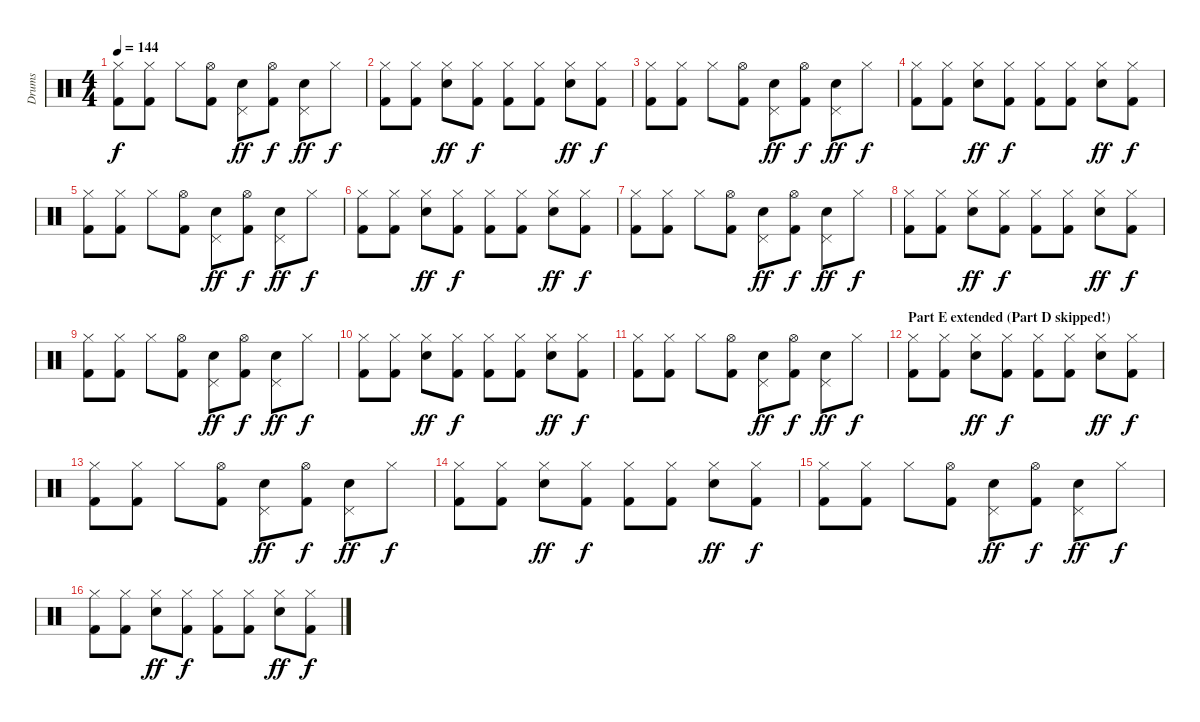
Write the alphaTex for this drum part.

\track ("Drums" "Drums") {instrument percussion}
\staff {score}
\articulation defaults
\ts (4 4)
\tempo 144
\clef neutral
\ks c
("Hi-Hat (closed)" "Kick (hit) 2").8{dy f} ("Hi-Hat (closed)" "Kick (hit) 2").8 "Hi-Hat (closed)".8 ("Hi-Hat (open)" "Kick (hit) 2").8 ("Pedal Hi-Hat (hit)" "Electric Snare (hit)").8{dy ff} ("Hi-Hat (open)" "Kick (hit) 2").8{dy f} ("Pedal Hi-Hat (hit)" "Electric Snare (hit)").8{dy ff} "Hi-Hat (closed)".8{dy f} |
("Hi-Hat (closed)" "Kick (hit) 2").8 ("Hi-Hat (closed)" "Kick (hit) 2").8 ("Hi-Hat (closed)" "Electric Snare (hit)").8{dy ff} ("Hi-Hat (closed)" "Kick (hit) 2").8{dy f} ("Hi-Hat (closed)" "Kick (hit) 2").8 ("Hi-Hat (closed)" "Kick (hit) 2").8 ("Hi-Hat (closed)" "Electric Snare (hit)").8{dy ff} ("Hi-Hat (closed)" "Kick (hit) 2").8{dy f} |
("Hi-Hat (closed)" "Kick (hit) 2").8 ("Hi-Hat (closed)" "Kick (hit) 2").8 "Hi-Hat (closed)".8 ("Hi-Hat (open)" "Kick (hit) 2").8 ("Pedal Hi-Hat (hit)" "Electric Snare (hit)").8{dy ff} ("Hi-Hat (open)" "Kick (hit) 2").8{dy f} ("Pedal Hi-Hat (hit)" "Electric Snare (hit)").8{dy ff} "Hi-Hat (closed)".8{dy f} |
("Hi-Hat (closed)" "Kick (hit) 2").8 ("Hi-Hat (closed)" "Kick (hit) 2").8 ("Hi-Hat (closed)" "Electric Snare (hit)").8{dy ff} ("Hi-Hat (closed)" "Kick (hit) 2").8{dy f} ("Hi-Hat (closed)" "Kick (hit) 2").8 ("Hi-Hat (closed)" "Kick (hit) 2").8 ("Hi-Hat (closed)" "Electric Snare (hit)").8{dy ff} ("Hi-Hat (closed)" "Kick (hit) 2").8{dy f} |
("Hi-Hat (closed)" "Kick (hit) 2").8 ("Hi-Hat (closed)" "Kick (hit) 2").8 "Hi-Hat (closed)".8 ("Hi-Hat (open)" "Kick (hit) 2").8 ("Pedal Hi-Hat (hit)" "Electric Snare (hit)").8{dy ff} ("Hi-Hat (open)" "Kick (hit) 2").8{dy f} ("Pedal Hi-Hat (hit)" "Electric Snare (hit)").8{dy ff} "Hi-Hat (closed)".8{dy f} |
("Hi-Hat (closed)" "Kick (hit) 2").8 ("Hi-Hat (closed)" "Kick (hit) 2").8 ("Hi-Hat (closed)" "Electric Snare (hit)").8{dy ff} ("Hi-Hat (closed)" "Kick (hit) 2").8{dy f} ("Hi-Hat (closed)" "Kick (hit) 2").8 ("Hi-Hat (closed)" "Kick (hit) 2").8 ("Hi-Hat (closed)" "Electric Snare (hit)").8{dy ff} ("Hi-Hat (closed)" "Kick (hit) 2").8{dy f} |
("Hi-Hat (closed)" "Kick (hit) 2").8 ("Hi-Hat (closed)" "Kick (hit) 2").8 "Hi-Hat (closed)".8 ("Hi-Hat (open)" "Kick (hit) 2").8 ("Pedal Hi-Hat (hit)" "Electric Snare (hit)").8{dy ff} ("Hi-Hat (open)" "Kick (hit) 2").8{dy f} ("Pedal Hi-Hat (hit)" "Electric Snare (hit)").8{dy ff} "Hi-Hat (closed)".8{dy f} |
("Hi-Hat (closed)" "Kick (hit) 2").8 ("Hi-Hat (closed)" "Kick (hit) 2").8 ("Hi-Hat (closed)" "Electric Snare (hit)").8{dy ff} ("Hi-Hat (closed)" "Kick (hit) 2").8{dy f} ("Hi-Hat (closed)" "Kick (hit) 2").8 ("Hi-Hat (closed)" "Kick (hit) 2").8 ("Hi-Hat (closed)" "Electric Snare (hit)").8{dy ff} ("Hi-Hat (closed)" "Kick (hit) 2").8{dy f} |
("Hi-Hat (closed)" "Kick (hit) 2").8 ("Hi-Hat (closed)" "Kick (hit) 2").8 "Hi-Hat (closed)".8 ("Hi-Hat (open)" "Kick (hit) 2").8 ("Pedal Hi-Hat (hit)" "Electric Snare (hit)").8{dy ff} ("Hi-Hat (open)" "Kick (hit) 2").8{dy f} ("Pedal Hi-Hat (hit)" "Electric Snare (hit)").8{dy ff} "Hi-Hat (closed)".8{dy f} |
("Hi-Hat (closed)" "Kick (hit) 2").8 ("Hi-Hat (closed)" "Kick (hit) 2").8 ("Hi-Hat (closed)" "Electric Snare (hit)").8{dy ff} ("Hi-Hat (closed)" "Kick (hit) 2").8{dy f} ("Hi-Hat (closed)" "Kick (hit) 2").8 ("Hi-Hat (closed)" "Kick (hit) 2").8 ("Hi-Hat (closed)" "Electric Snare (hit)").8{dy ff} ("Hi-Hat (closed)" "Kick (hit) 2").8{dy f} |
("Hi-Hat (closed)" "Kick (hit) 2").8 ("Hi-Hat (closed)" "Kick (hit) 2").8 "Hi-Hat (closed)".8 ("Hi-Hat (open)" "Kick (hit) 2").8 ("Pedal Hi-Hat (hit)" "Electric Snare (hit)").8{dy ff} ("Hi-Hat (open)" "Kick (hit) 2").8{dy f} ("Pedal Hi-Hat (hit)" "Electric Snare (hit)").8{dy ff} "Hi-Hat (closed)".8{dy f} |
\section ("" "Part E extended (Part D skipped!)")
("Hi-Hat (closed)" "Kick (hit) 2").8 ("Hi-Hat (closed)" "Kick (hit) 2").8 ("Hi-Hat (closed)" "Electric Snare (hit)").8{dy ff} ("Hi-Hat (closed)" "Kick (hit) 2").8{dy f} ("Hi-Hat (closed)" "Kick (hit) 2").8 ("Hi-Hat (closed)" "Kick (hit) 2").8 ("Hi-Hat (closed)" "Electric Snare (hit)").8{dy ff} ("Hi-Hat (closed)" "Kick (hit) 2").8{dy f} |
("Hi-Hat (closed)" "Kick (hit) 2").8 ("Hi-Hat (closed)" "Kick (hit) 2").8 "Hi-Hat (closed)".8 ("Hi-Hat (open)" "Kick (hit) 2").8 ("Pedal Hi-Hat (hit)" "Electric Snare (hit)").8{dy ff} ("Hi-Hat (open)" "Kick (hit) 2").8{dy f} ("Pedal Hi-Hat (hit)" "Electric Snare (hit)").8{dy ff} "Hi-Hat (closed)".8{dy f} |
("Hi-Hat (closed)" "Kick (hit) 2").8 ("Hi-Hat (closed)" "Kick (hit) 2").8 ("Hi-Hat (closed)" "Electric Snare (hit)").8{dy ff} ("Hi-Hat (closed)" "Kick (hit) 2").8{dy f} ("Hi-Hat (closed)" "Kick (hit) 2").8 ("Hi-Hat (closed)" "Kick (hit) 2").8 ("Hi-Hat (closed)" "Electric Snare (hit)").8{dy ff} ("Hi-Hat (closed)" "Kick (hit) 2").8{dy f} |
("Hi-Hat (closed)" "Kick (hit) 2").8 ("Hi-Hat (closed)" "Kick (hit) 2").8 "Hi-Hat (closed)".8 ("Hi-Hat (open)" "Kick (hit) 2").8 ("Pedal Hi-Hat (hit)" "Electric Snare (hit)").8{dy ff} ("Hi-Hat (open)" "Kick (hit) 2").8{dy f} ("Pedal Hi-Hat (hit)" "Electric Snare (hit)").8{dy ff} "Hi-Hat (closed)".8{dy f} |
("Hi-Hat (closed)" "Kick (hit) 2").8 ("Hi-Hat (closed)" "Kick (hit) 2").8 ("Hi-Hat (closed)" "Electric Snare (hit)").8{dy ff} ("Hi-Hat (closed)" "Kick (hit) 2").8{dy f} ("Hi-Hat (closed)" "Kick (hit) 2").8 ("Hi-Hat (closed)" "Kick (hit) 2").8 ("Hi-Hat (closed)" "Electric Snare (hit)").8{dy ff} ("Hi-Hat (closed)" "Kick (hit) 2").8{dy f}
